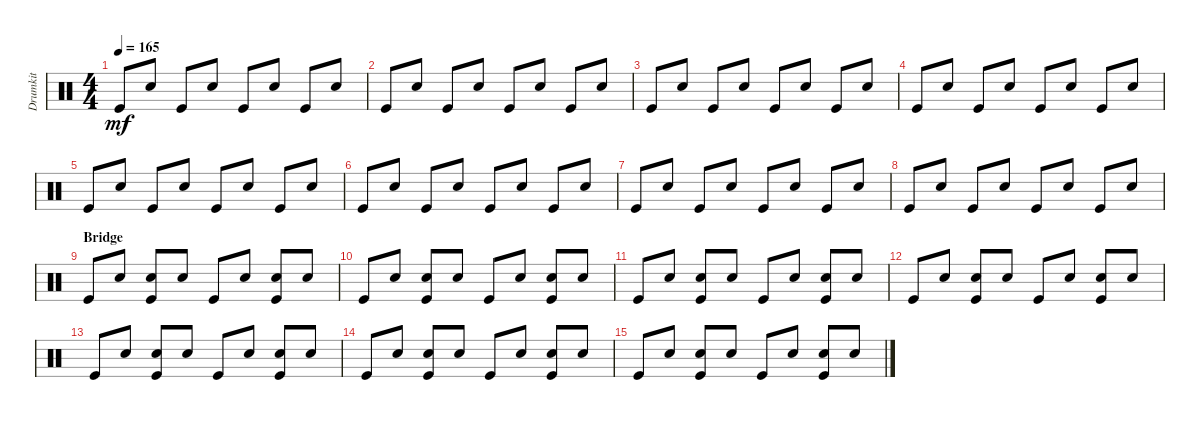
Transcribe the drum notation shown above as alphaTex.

\track ("Drumkit" "Drumkit") {instrument percussion}
\staff {score}
\articulation defaults
\ts (4 4)
\tempo 165
\clef neutral
\ks c "Kick (hit)".8{dy mf} "Electric Snare (hit)".8 "Kick (hit)".8 "Electric Snare (hit)".8 "Kick (hit)".8 "Electric Snare (hit)".8 "Kick (hit)".8 "Electric Snare (hit)".8
|
"Kick (hit)".8 "Electric Snare (hit)".8 "Kick (hit)".8 "Electric Snare (hit)".8 "Kick (hit)".8 "Electric Snare (hit)".8 "Kick (hit)".8 "Electric Snare (hit)".8 |
"Kick (hit)".8 "Electric Snare (hit)".8 "Kick (hit)".8 "Electric Snare (hit)".8 "Kick (hit)".8 "Electric Snare (hit)".8 "Kick (hit)".8 "Electric Snare (hit)".8 |
"Kick (hit)".8 "Electric Snare (hit)".8 "Kick (hit)".8 "Electric Snare (hit)".8 "Kick (hit)".8 "Electric Snare (hit)".8 "Kick (hit)".8 "Electric Snare (hit)".8 |
"Kick (hit)".8 "Electric Snare (hit)".8 "Kick (hit)".8 "Electric Snare (hit)".8 "Kick (hit)".8 "Electric Snare (hit)".8 "Kick (hit)".8 "Electric Snare (hit)".8 |
"Kick (hit)".8 "Electric Snare (hit)".8 "Kick (hit)".8 "Electric Snare (hit)".8 "Kick (hit)".8 "Electric Snare (hit)".8 "Kick (hit)".8 "Electric Snare (hit)".8 |
"Kick (hit)".8 "Electric Snare (hit)".8 "Kick (hit)".8 "Electric Snare (hit)".8 "Kick (hit)".8 "Electric Snare (hit)".8 "Kick (hit)".8 "Electric Snare (hit)".8 |
"Kick (hit)".8 "Electric Snare (hit)".8 "Kick (hit)".8 "Electric Snare (hit)".8 "Kick (hit)".8 "Electric Snare (hit)".8 "Kick (hit)".8 "Electric Snare (hit)".8 |
\section ("" "Bridge")
"Kick (hit)".8 "Electric Snare (hit)".8 ("Kick (hit)" "Hand Clap (hit)").8 "Electric Snare (hit)".8 "Kick (hit)".8 "Electric Snare (hit)".8 ("Kick (hit)" "Hand Clap (hit)").8 "Electric Snare (hit)".8 |
"Kick (hit)".8 "Electric Snare (hit)".8 ("Kick (hit)" "Hand Clap (hit)").8 "Electric Snare (hit)".8 "Kick (hit)".8 "Electric Snare (hit)".8 ("Kick (hit)" "Hand Clap (hit)").8 "Electric Snare (hit)".8 |
"Kick (hit)".8 "Electric Snare (hit)".8 ("Kick (hit)" "Hand Clap (hit)").8 "Electric Snare (hit)".8 "Kick (hit)".8 "Electric Snare (hit)".8 ("Kick (hit)" "Hand Clap (hit)").8 "Electric Snare (hit)".8 |
"Kick (hit)".8 "Electric Snare (hit)".8 ("Kick (hit)" "Hand Clap (hit)").8 "Electric Snare (hit)".8 "Kick (hit)".8 "Electric Snare (hit)".8 ("Kick (hit)" "Hand Clap (hit)").8 "Electric Snare (hit)".8 |
"Kick (hit)".8 "Electric Snare (hit)".8 ("Kick (hit)" "Hand Clap (hit)").8 "Electric Snare (hit)".8 "Kick (hit)".8 "Electric Snare (hit)".8 ("Kick (hit)" "Hand Clap (hit)").8 "Electric Snare (hit)".8 |
"Kick (hit)".8 "Electric Snare (hit)".8 ("Kick (hit)" "Hand Clap (hit)").8 "Electric Snare (hit)".8 "Kick (hit)".8 "Electric Snare (hit)".8 ("Kick (hit)" "Hand Clap (hit)").8 "Electric Snare (hit)".8 |
"Kick (hit)".8 "Electric Snare (hit)".8 ("Kick (hit)" "Hand Clap (hit)").8 "Electric Snare (hit)".8 "Kick (hit)".8 "Electric Snare (hit)".8 ("Kick (hit)" "Hand Clap (hit)").8 "Electric Snare (hit)".8
